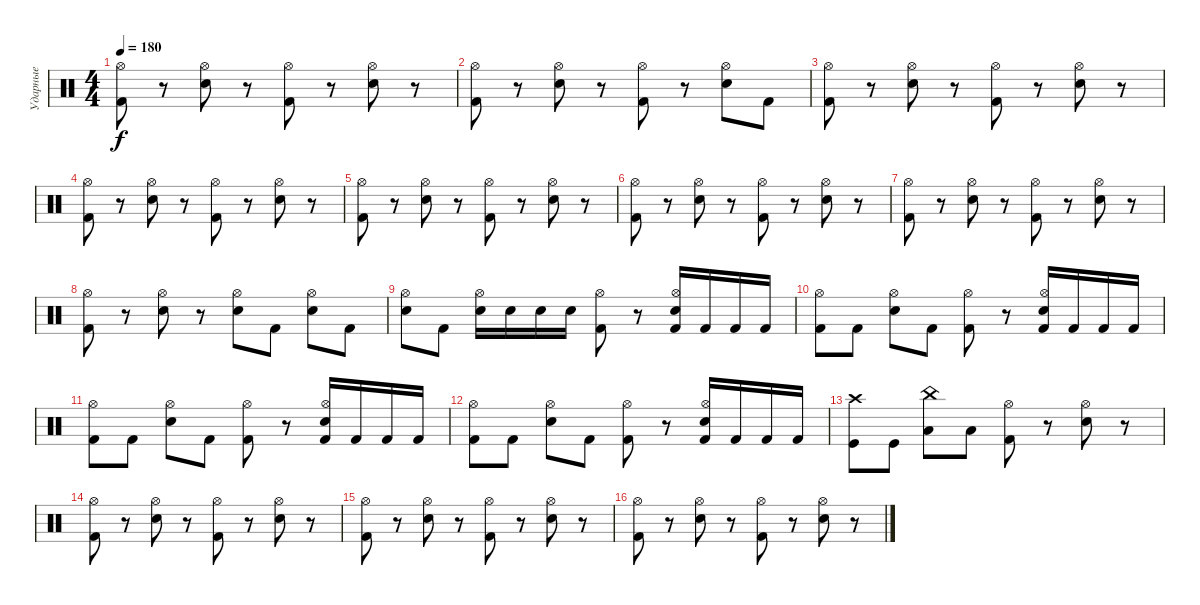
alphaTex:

\track ("Ударные" "Ударные") {instrument percussion}
\staff {score}
\articulation defaults
\ts (4 4)
\tempo 180
\clef neutral
\ks c
("Kick (hit) 2" "Hi-Hat (open)").8{dy f} r.8 ("Electric Snare (hit)" "Hi-Hat (open)").8 r.8 ("Kick (hit) 2" "Hi-Hat (open)").8 r.8 ("Electric Snare (hit)" "Hi-Hat (open)").8 r.8 |
("Kick (hit) 2" "Hi-Hat (open)").8 r.8 ("Electric Snare (hit)" "Hi-Hat (open)").8 r.8 ("Kick (hit) 2" "Hi-Hat (open)").8 r.8 ("Electric Snare (hit)" "Hi-Hat (open)").8 "Kick (hit) 2".8 |
("Kick (hit) 2" "Hi-Hat (open)").8 r.8 ("Electric Snare (hit)" "Hi-Hat (open)").8 r.8 ("Kick (hit) 2" "Hi-Hat (open)").8 r.8 ("Electric Snare (hit)" "Hi-Hat (open)").8 r.8 |
("Kick (hit) 2" "Hi-Hat (open)").8 r.8 ("Electric Snare (hit)" "Hi-Hat (open)").8 r.8 ("Kick (hit) 2" "Hi-Hat (open)").8 r.8 ("Electric Snare (hit)" "Hi-Hat (open)").8 r.8 |
("Kick (hit) 2" "Hi-Hat (open)").8 r.8 ("Electric Snare (hit)" "Hi-Hat (open)").8 r.8 ("Kick (hit) 2" "Hi-Hat (open)").8 r.8 ("Electric Snare (hit)" "Hi-Hat (open)").8 r.8 |
("Kick (hit) 2" "Hi-Hat (open)").8 r.8 ("Electric Snare (hit)" "Hi-Hat (open)").8 r.8 ("Kick (hit) 2" "Hi-Hat (open)").8 r.8 ("Electric Snare (hit)" "Hi-Hat (open)").8 r.8 |
("Kick (hit) 2" "Hi-Hat (open)").8 r.8 ("Electric Snare (hit)" "Hi-Hat (open)").8 r.8 ("Kick (hit) 2" "Hi-Hat (open)").8 r.8 ("Electric Snare (hit)" "Hi-Hat (open)").8 r.8 |
("Kick (hit) 2" "Hi-Hat (open)").8 r.8 ("Electric Snare (hit)" "Hi-Hat (open)").8 r.8 ("Electric Snare (hit)" "Hi-Hat (open)").8 "Kick (hit) 2".8 ("Electric Snare (hit)" "Hi-Hat (open)").8 "Kick (hit) 2".8 |
("Electric Snare (hit)" "Hi-Hat (open)").8 "Kick (hit) 2".8 ("Electric Snare (hit)" "Hi-Hat (open)").16 "Electric Snare (hit)".16 "Electric Snare (hit)".16 "Electric Snare (hit)".16 ("Kick (hit) 2" "Hi-Hat (open)").8 r.8 ("Kick (hit) 2" "Electric Snare (hit)" "Hi-Hat (open)").16 "Kick (hit) 2".16 "Kick (hit) 2".16 "Kick (hit) 2".16 |
("Kick (hit) 2" "Hi-Hat (open)").8 "Kick (hit) 2".8 ("Electric Snare (hit)" "Hi-Hat (open)").8 "Kick (hit) 2".8 ("Kick (hit) 2" "Hi-Hat (open)").8 r.8 ("Kick (hit) 2" "Electric Snare (hit)" "Hi-Hat (open)").16 "Kick (hit) 2".16 "Kick (hit) 2".16 "Kick (hit) 2".16 |
("Kick (hit) 2" "Hi-Hat (open)").8 "Kick (hit) 2".8 ("Electric Snare (hit)" "Hi-Hat (open)").8 "Kick (hit) 2".8 ("Kick (hit) 2" "Hi-Hat (open)").8 r.8 ("Kick (hit) 2" "Electric Snare (hit)" "Hi-Hat (open)").16 "Kick (hit) 2".16 "Kick (hit) 2".16 "Kick (hit) 2".16 |
("Kick (hit) 2" "Hi-Hat (open)").8 "Kick (hit) 2".8 ("Electric Snare (hit)" "Hi-Hat (open)").8 "Kick (hit) 2".8 ("Kick (hit) 2" "Hi-Hat (open)").8 r.8 ("Kick (hit) 2" "Electric Snare (hit)" "Hi-Hat (open)").16 "Kick (hit) 2".16 "Kick (hit) 2".16 "Kick (hit) 2".16 |
("Kick (hit)" "Crash high (hit)").8 "Kick (hit)".8 ("Low Tom (hit)" "China (hit)").8 "Low Tom (hit)".8 ("Kick (hit) 2" "Hi-Hat (open)").8 r.8 ("Electric Snare (hit)" "Hi-Hat (open)").8 r.8 |
("Kick (hit) 2" "Hi-Hat (open)").8 r.8 ("Electric Snare (hit)" "Hi-Hat (open)").8 r.8 ("Kick (hit) 2" "Hi-Hat (open)").8 r.8 ("Electric Snare (hit)" "Hi-Hat (open)").8 r.8 |
("Kick (hit) 2" "Hi-Hat (open)").8 r.8 ("Electric Snare (hit)" "Hi-Hat (open)").8 r.8 ("Kick (hit) 2" "Hi-Hat (open)").8 r.8 ("Electric Snare (hit)" "Hi-Hat (open)").8 r.8 |
("Kick (hit) 2" "Hi-Hat (open)").8 r.8 ("Electric Snare (hit)" "Hi-Hat (open)").8 r.8 ("Kick (hit) 2" "Hi-Hat (open)").8 r.8 ("Electric Snare (hit)" "Hi-Hat (open)").8 r.8
